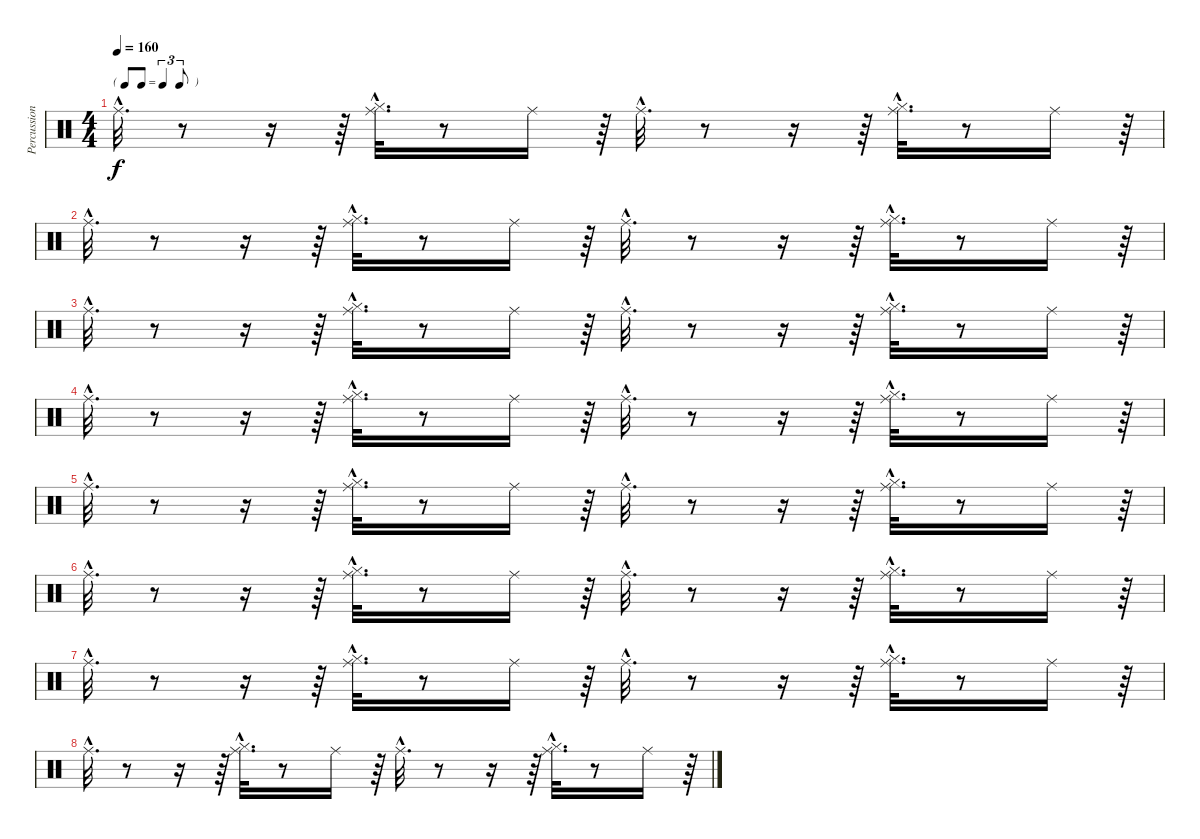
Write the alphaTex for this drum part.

\track ("Percussions" "Percussion") {instrument percussion}
\staff {score}
\articulation defaults
\ts (4 4)
\tf triplet8th
\tempo 160
\clef neutral
\ks c "Ride (middle)"{hac}.32{d dy f}
r.8 r.16 r.64 ("Hi-Hat (closed)"{hac} "Ride (middle)"{hac}).32{d} r.8 "Ride (middle)".16 r.64 "Ride (middle)"{hac}.32{d} r.8 r.16 r.64 ("Hi-Hat (closed)"{hac} "Ride (middle)"{hac}).32{d} r.8 "Ride (middle)".16 r.64 |
"Ride (middle)"{hac}.32{d} r.8 r.16 r.64 ("Hi-Hat (closed)"{hac} "Ride (middle)"{hac}).32{d} r.8 "Ride (middle)".16 r.64 "Ride (middle)"{hac}.32{d} r.8 r.16 r.64 ("Hi-Hat (closed)"{hac} "Ride (middle)"{hac}).32{d} r.8 "Ride (middle)".16 r.64 |
"Ride (middle)"{hac}.32{d} r.8 r.16 r.64 ("Hi-Hat (closed)"{hac} "Ride (middle)"{hac}).32{d} r.8 "Ride (middle)".16 r.64 "Ride (middle)"{hac}.32{d} r.8 r.16 r.64 ("Hi-Hat (closed)"{hac} "Ride (middle)"{hac}).32{d} r.8 "Ride (middle)".16 r.64 |
"Ride (middle)"{hac}.32{d} r.8 r.16 r.64 ("Hi-Hat (closed)"{hac} "Ride (middle)"{hac}).32{d} r.8 "Ride (middle)".16 r.64 "Ride (middle)"{hac}.32{d} r.8 r.16 r.64 ("Hi-Hat (closed)"{hac} "Ride (middle)"{hac}).32{d} r.8 "Ride (middle)".16 r.64 |
"Ride (middle)"{hac}.32{d} r.8 r.16 r.64 ("Hi-Hat (closed)"{hac} "Ride (middle)"{hac}).32{d} r.8 "Ride (middle)".16 r.64 "Ride (middle)"{hac}.32{d} r.8 r.16 r.64 ("Hi-Hat (closed)"{hac} "Ride (middle)"{hac}).32{d} r.8 "Ride (middle)".16 r.64 |
"Ride (middle)"{hac}.32{d} r.8 r.16 r.64 ("Hi-Hat (closed)"{hac} "Ride (middle)"{hac}).32{d} r.8 "Ride (middle)".16 r.64 "Ride (middle)"{hac}.32{d} r.8 r.16 r.64 ("Hi-Hat (closed)"{hac} "Ride (middle)"{hac}).32{d} r.8 "Ride (middle)".16 r.64 |
"Ride (middle)"{hac}.32{d} r.8 r.16 r.64 ("Hi-Hat (closed)"{hac} "Ride (middle)"{hac}).32{d} r.8 "Ride (middle)".16 r.64 "Ride (middle)"{hac}.32{d} r.8 r.16 r.64 ("Hi-Hat (closed)"{hac} "Ride (middle)"{hac}).32{d} r.8 "Ride (middle)".16 r.64 |
"Ride (middle)"{hac}.32{d} r.8 r.16 r.64 ("Hi-Hat (closed)"{hac} "Ride (middle)"{hac}).32{d} r.8 "Ride (middle)".16 r.64 "Ride (middle)"{hac}.32{d} r.8 r.16 r.64 ("Hi-Hat (closed)"{hac} "Ride (middle)"{hac}).32{d} r.8 "Ride (middle)".16 r.64
